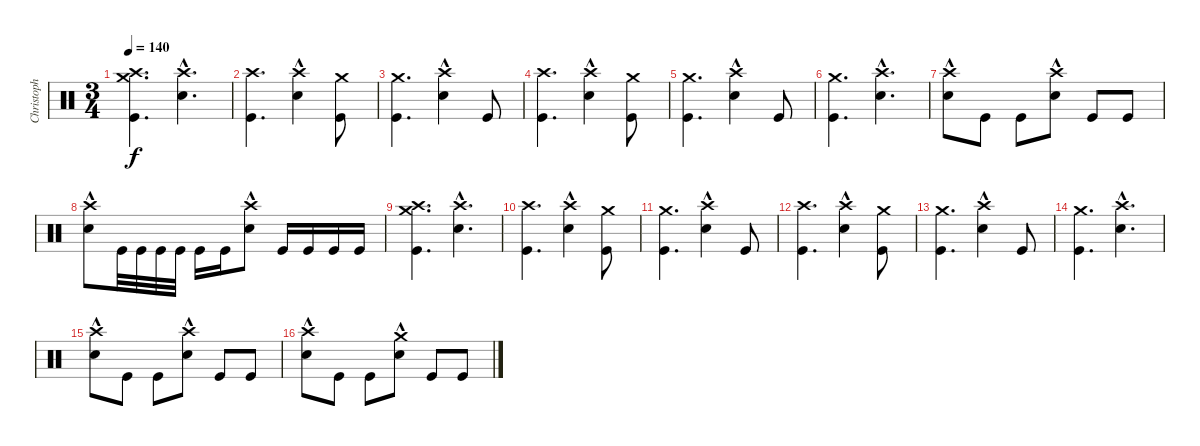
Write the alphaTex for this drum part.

\track ("Christoph \"Doom\" Schneider" "Christoph ") {instrument percussion}
\staff {score}
\articulation defaults
\ts (3 4)
\tempo 140
\clef neutral
\ks c
("Crash high (hit)" "Kick (hit)" "Crash medium (hit)").4{d dy f} ("Crash high (hit)" "Snare (hit) 2"{hac}).4{d} |
("Crash high (hit)" "Kick (hit)").4{d} ("Crash high (hit)" "Snare (hit) 2"{hac}).4 ("Crash medium (hit)" "Kick (hit)").8 |
("Kick (hit)" "Crash medium (hit)").4{d} ("Crash high (hit)" "Snare (hit) 2"{hac}).4 "Kick (hit)".8 |
("Crash high (hit)" "Kick (hit)").4{d} ("Crash high (hit)" "Snare (hit) 2"{hac}).4 ("Crash medium (hit)" "Kick (hit)").8 |
("Kick (hit)" "Crash medium (hit)").4{d} ("Crash high (hit)" "Snare (hit) 2"{hac}).4 "Kick (hit)".8 |
("Kick (hit)" "Crash medium (hit)").4{d} ("Crash high (hit)" "Snare (hit) 2"{hac}).4{d} |
("Crash high (hit)" "Snare (hit) 2"{hac}).8 "Kick (hit)".8 "Kick (hit)".8 ("Crash high (hit)" "Snare (hit) 2"{hac}).8 "Kick (hit)".8 "Kick (hit)".8 |
("Crash high (hit)" "Snare (hit) 2"{hac}).8 "Kick (hit)".32 "Kick (hit)".32 "Kick (hit)".32 "Kick (hit)".32 "Kick (hit)".16 "Kick (hit)".16 ("Crash high (hit)" "Snare (hit) 2"{hac}).8 "Kick (hit)".16 "Kick (hit)".16 "Kick (hit)".16 "Kick (hit)".16 |
("Crash high (hit)" "Kick (hit)" "Crash medium (hit)").4{d} ("Crash high (hit)" "Snare (hit) 2"{hac}).4{d} |
("Crash high (hit)" "Kick (hit)").4{d} ("Crash high (hit)" "Snare (hit) 2"{hac}).4 ("Crash medium (hit)" "Kick (hit)").8 |
("Kick (hit)" "Crash medium (hit)").4{d} ("Crash high (hit)" "Snare (hit) 2"{hac}).4 "Kick (hit)".8 |
("Crash high (hit)" "Kick (hit)").4{d} ("Crash high (hit)" "Snare (hit) 2"{hac}).4 ("Crash medium (hit)" "Kick (hit)").8 |
("Kick (hit)" "Crash medium (hit)").4{d} ("Crash high (hit)" "Snare (hit) 2"{hac}).4 "Kick (hit)".8 |
("Kick (hit)" "Crash medium (hit)").4{d} ("Crash high (hit)" "Snare (hit) 2"{hac}).4{d} |
("Crash high (hit)" "Snare (hit) 2"{hac}).8 "Kick (hit)".8 "Kick (hit)".8 ("Crash high (hit)" "Snare (hit) 2"{hac}).8 "Kick (hit)".8 "Kick (hit)".8 |
("Crash high (hit)" "Snare (hit) 2"{hac}).8 "Kick (hit)".8 "Kick (hit)".8 ("Crash medium (hit)" "Snare (hit) 2"{hac}).8 "Kick (hit)".8 "Kick (hit)".8
